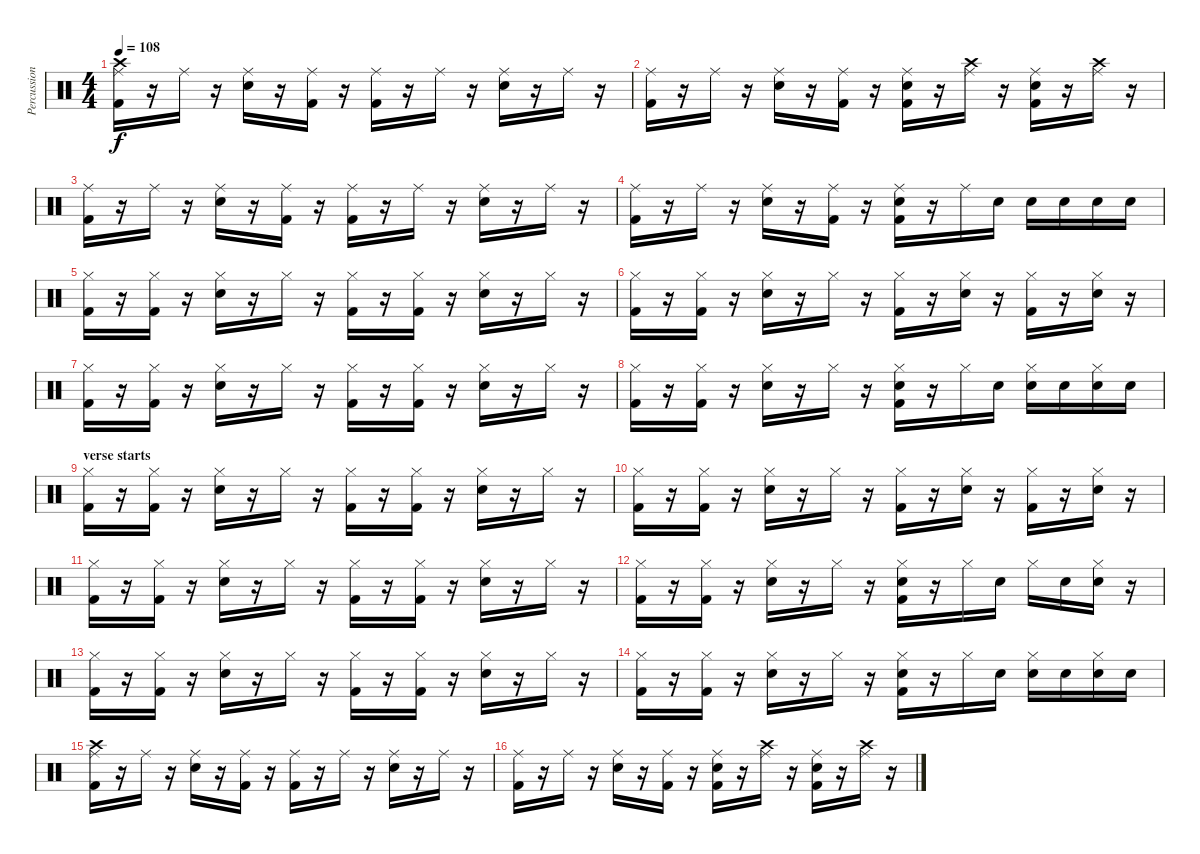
\track ("Percussion" "Percussion") {instrument percussion}
\staff {score}
\articulation defaults
\ts (4 4)
\tempo 108
\clef neutral
\ks c
("Crash high (hit)" "Ride (middle)" "Kick (hit) 2").16{dy f} r.16 "Ride (middle)".16 r.16 ("Snare (hit) 2" "Ride (middle)").16 r.16 ("Ride (middle)" "Kick (hit) 2").16 r.16 ("Ride (middle)" "Kick (hit) 2").16 r.16 "Ride (middle)".16 r.16 ("Snare (hit) 2" "Ride (middle)").16 r.16 "Ride (middle)".16 r.16 |
("Ride (middle)" "Kick (hit) 2").16 r.16 "Ride (middle)".16 r.16 ("Snare (hit) 2" "Ride (middle)").16 r.16 ("Ride (middle)" "Kick (hit) 2").16 r.16 ("Snare (hit) 2" "Ride (middle)" "Kick (hit) 2").16 r.16 ("Crash high (hit)" "Ride (middle)").16 r.16 ("Snare (hit) 2" "Ride (middle)" "Kick (hit) 2").16 r.16 ("Crash high (hit)" "Ride (middle)").16 r.16 |
("Ride (middle)" "Kick (hit) 2").16 r.16 "Ride (middle)".16 r.16 ("Snare (hit) 2" "Ride (middle)").16 r.16 ("Ride (middle)" "Kick (hit) 2").16 r.16 ("Ride (middle)" "Kick (hit) 2").16 r.16 "Ride (middle)".16 r.16 ("Snare (hit) 2" "Ride (middle)").16 r.16 "Ride (middle)".16 r.16 |
("Ride (middle)" "Kick (hit) 2").16 r.16 "Ride (middle)".16 r.16 ("Snare (hit) 2" "Ride (middle)").16 r.16 ("Ride (middle)" "Kick (hit) 2").16 r.16 ("Snare (hit) 2" "Ride (middle)" "Kick (hit) 2").16 r.16 "Ride (middle)".16 "Snare (hit) 2".16 "Snare (hit) 2".16 "Snare (hit) 2".16 "Snare (hit) 2".16 "Snare (hit) 2".16 |
("Hi-Hat (closed)" "Kick (hit) 2").16 r.16 ("Hi-Hat (closed)" "Kick (hit) 2").16 r.16 ("Snare (hit) 2" "Hi-Hat (closed)").16 r.16 "Hi-Hat (closed)".16 r.16 ("Hi-Hat (closed)" "Kick (hit) 2").16 r.16 ("Hi-Hat (closed)" "Kick (hit) 2").16 r.16 ("Snare (hit) 2" "Hi-Hat (closed)").16 r.16 "Hi-Hat (closed)".16 r.16 |
("Hi-Hat (closed)" "Kick (hit) 2").16 r.16 ("Hi-Hat (closed)" "Kick (hit) 2").16 r.16 ("Snare (hit) 2" "Hi-Hat (closed)").16 r.16 "Hi-Hat (closed)".16 r.16 ("Hi-Hat (closed)" "Kick (hit) 2").16 r.16 ("Snare (hit) 2" "Hi-Hat (closed)").16 r.16 ("Hi-Hat (closed)" "Kick (hit) 2").16 r.16 ("Snare (hit) 2" "Hi-Hat (closed)").16 r.16 |
("Hi-Hat (closed)" "Kick (hit) 2").16 r.16 ("Hi-Hat (closed)" "Kick (hit) 2").16 r.16 ("Snare (hit) 2" "Hi-Hat (closed)").16 r.16 "Hi-Hat (closed)".16 r.16 ("Hi-Hat (closed)" "Kick (hit) 2").16 r.16 ("Hi-Hat (closed)" "Kick (hit) 2").16 r.16 ("Snare (hit) 2" "Hi-Hat (closed)").16 r.16 "Hi-Hat (closed)".16 r.16 |
("Hi-Hat (closed)" "Kick (hit) 2").16 r.16 ("Hi-Hat (closed)" "Kick (hit) 2").16 r.16 ("Snare (hit) 2" "Hi-Hat (closed)").16 r.16 "Hi-Hat (closed)".16 r.16 ("Snare (hit) 2" "Hi-Hat (closed)" "Kick (hit) 2").16 r.16 "Hi-Hat (closed)".16 "Snare (hit) 2".16 ("Snare (hit) 2" "Hi-Hat (closed)").16 "Snare (hit) 2".16 ("Snare (hit) 2" "Hi-Hat (closed)").16 "Snare (hit) 2".16 |
\section ("" "verse starts")
("Hi-Hat (closed)" "Kick (hit) 2").16 r.16 ("Hi-Hat (closed)" "Kick (hit) 2").16 r.16 ("Snare (hit) 2" "Hi-Hat (closed)").16 r.16 "Hi-Hat (closed)".16 r.16 ("Hi-Hat (closed)" "Kick (hit) 2").16 r.16 ("Hi-Hat (closed)" "Kick (hit) 2").16 r.16 ("Snare (hit) 2" "Hi-Hat (closed)").16 r.16 "Hi-Hat (closed)".16 r.16 |
("Hi-Hat (closed)" "Kick (hit) 2").16 r.16 ("Hi-Hat (closed)" "Kick (hit) 2").16 r.16 ("Snare (hit) 2" "Hi-Hat (closed)").16 r.16 "Hi-Hat (closed)".16 r.16 ("Hi-Hat (closed)" "Kick (hit) 2").16 r.16 ("Snare (hit) 2" "Hi-Hat (closed)").16 r.16 ("Hi-Hat (closed)" "Kick (hit) 2").16 r.16 ("Snare (hit) 2" "Hi-Hat (closed)").16 r.16 |
("Hi-Hat (closed)" "Kick (hit) 2").16 r.16 ("Hi-Hat (closed)" "Kick (hit) 2").16 r.16 ("Snare (hit) 2" "Hi-Hat (closed)").16 r.16 "Hi-Hat (closed)".16 r.16 ("Hi-Hat (closed)" "Kick (hit) 2").16 r.16 ("Hi-Hat (closed)" "Kick (hit) 2").16 r.16 ("Snare (hit) 2" "Hi-Hat (closed)").16 r.16 "Hi-Hat (closed)".16 r.16 |
("Hi-Hat (closed)" "Kick (hit) 2").16 r.16 ("Hi-Hat (closed)" "Kick (hit) 2").16 r.16 ("Snare (hit) 2" "Hi-Hat (closed)").16 r.16 "Hi-Hat (closed)".16 r.16 ("Snare (hit) 2" "Hi-Hat (closed)" "Kick (hit) 2").16 r.16 "Hi-Hat (closed)".16 "Snare (hit) 2".16 "Hi-Hat (closed)".16 "Snare (hit) 2".16 ("Snare (hit) 2" "Hi-Hat (closed)").16 r.16 |
("Hi-Hat (closed)" "Kick (hit) 2").16 r.16 ("Hi-Hat (closed)" "Kick (hit) 2").16 r.16 ("Snare (hit) 2" "Hi-Hat (closed)").16 r.16 "Hi-Hat (closed)".16 r.16 ("Hi-Hat (closed)" "Kick (hit) 2").16 r.16 ("Hi-Hat (closed)" "Kick (hit) 2").16 r.16 ("Snare (hit) 2" "Hi-Hat (closed)").16 r.16 "Hi-Hat (closed)".16 r.16 |
("Hi-Hat (closed)" "Kick (hit) 2").16 r.16 ("Hi-Hat (closed)" "Kick (hit) 2").16 r.16 ("Snare (hit) 2" "Hi-Hat (closed)").16 r.16 "Hi-Hat (closed)".16 r.16 ("Snare (hit) 2" "Hi-Hat (closed)" "Kick (hit) 2").16 r.16 "Hi-Hat (closed)".16 "Snare (hit) 2".16 ("Snare (hit) 2" "Hi-Hat (closed)").16 "Snare (hit) 2".16 ("Snare (hit) 2" "Hi-Hat (closed)").16 "Snare (hit) 2".16 |
("Crash high (hit)" "Ride (middle)" "Kick (hit) 2").16 r.16 "Ride (middle)".16 r.16 ("Snare (hit) 2" "Ride (middle)").16 r.16 ("Ride (middle)" "Kick (hit) 2").16 r.16 ("Ride (middle)" "Kick (hit) 2").16 r.16 "Ride (middle)".16 r.16 ("Snare (hit) 2" "Ride (middle)").16 r.16 "Ride (middle)".16 r.16 |
("Ride (middle)" "Kick (hit) 2").16 r.16 "Ride (middle)".16 r.16 ("Snare (hit) 2" "Ride (middle)").16 r.16 ("Ride (middle)" "Kick (hit) 2").16 r.16 ("Snare (hit) 2" "Ride (middle)" "Kick (hit) 2").16 r.16 ("Crash high (hit)" "Ride (middle)").16 r.16 ("Snare (hit) 2" "Ride (middle)" "Kick (hit) 2").16 r.16 ("Crash high (hit)" "Ride (middle)").16 r.16
